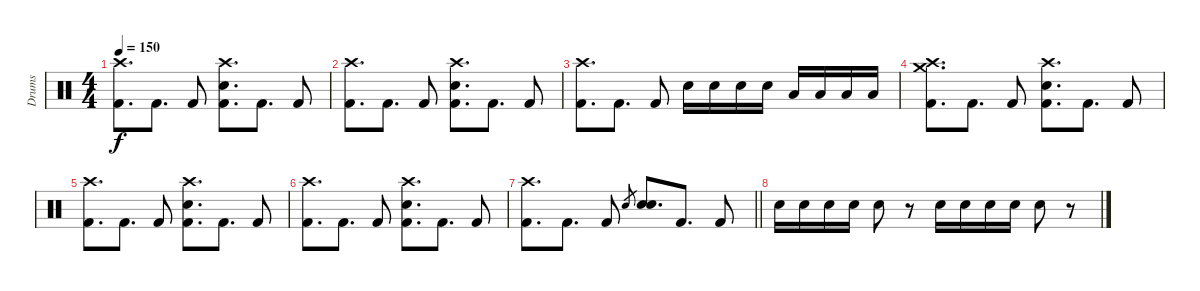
\track ("Drums" "Drums") {instrument percussion}
\staff {score}
\articulation defaults
\ts (4 4)
\tempo 150
\clef neutral
\ks c
("Crash high (hit)" "Kick (hit) 2").8{d dy f} "Kick (hit) 2".8{d} "Kick (hit) 2".8 ("Crash high (hit)" "Snare (hit) 2" "Kick (hit) 2").8{d} "Kick (hit) 2".8{d} "Kick (hit) 2".8 |
("Crash high (hit)" "Kick (hit) 2").8{d} "Kick (hit) 2".8{d} "Kick (hit) 2".8 ("Crash high (hit)" "Snare (hit) 2" "Kick (hit) 2").8{d} "Kick (hit) 2".8{d} "Kick (hit) 2".8 |
("Crash high (hit)" "Kick (hit) 2").8{d} "Kick (hit) 2".8{d} "Kick (hit) 2".8 "Snare (hit) 2".16 "Snare (hit) 2".16 "Snare (hit) 2".16 "Snare (hit) 2".16 "Low Tom (hit)".16 "Low Tom (hit)".16 "Low Tom (hit)".16 "Low Tom (hit)".16 |
("Crash high (hit)" "Crash medium (hit)" "Kick (hit) 2").8{d} "Kick (hit) 2".8{d} "Kick (hit) 2".8 ("Crash high (hit)" "Snare (hit) 2" "Kick (hit) 2").8{d} "Kick (hit) 2".8{d} "Kick (hit) 2".8 |
("Crash high (hit)" "Kick (hit) 2").8{d} "Kick (hit) 2".8{d} "Kick (hit) 2".8 ("Crash high (hit)" "Snare (hit) 2" "Kick (hit) 2").8{d} "Kick (hit) 2".8{d} "Kick (hit) 2".8 |
("Crash high (hit)" "Kick (hit) 2").8{d} "Kick (hit) 2".8{d} "Kick (hit) 2".8 ("Crash high (hit)" "Snare (hit) 2" "Kick (hit) 2").8{d} "Kick (hit) 2".8{d} "Kick (hit) 2".8 |
\barLineRight lightlight
("Crash high (hit)" "Kick (hit) 2").8{d} "Kick (hit) 2".8{d} "Kick (hit) 2".8 "Snare (hit) 2".8{gr} ("Snare (hit) 2" "Snare (hit) 2").8{d} "Kick (hit) 2".8{d} "Kick (hit) 2".8 |
"Snare (hit) 2".16 "Snare (hit) 2".16 "Snare (hit) 2".16 "Snare (hit) 2".16 "Snare (hit) 2".8 r.8 "Snare (hit) 2".16 "Snare (hit) 2".16 "Snare (hit) 2".16 "Snare (hit) 2".16 "Snare (hit) 2".8 r.8
